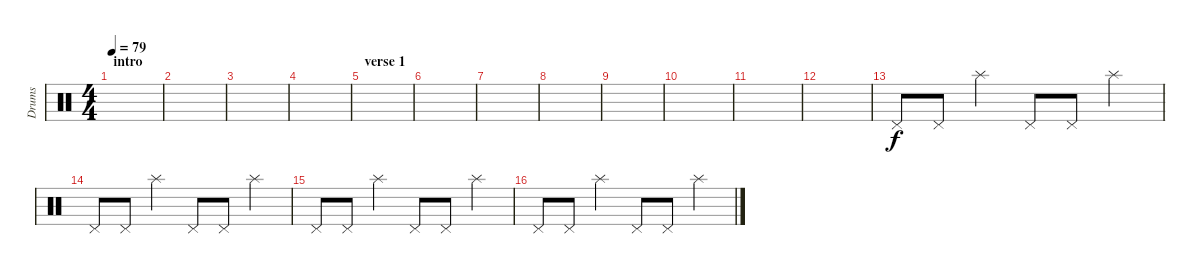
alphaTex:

\track ("Drums" "Drums") {instrument percussion}
\staff {score}
\articulation defaults
\ts (4 4)
\section ("" "intro")
\tempo 79
\clef neutral
\ks c
|
|
|
|
\section ("" "verse 1")
|
|
|
|
|
|
|
|
"Pedal Hi-Hat (hit)".8{volume 8} "Pedal Hi-Hat (hit)".8 "Splash (hit)".4 "Pedal Hi-Hat (hit)".8 "Pedal Hi-Hat (hit)".8 "Splash (hit)".4 |
"Pedal Hi-Hat (hit)".8 "Pedal Hi-Hat (hit)".8 "Splash (hit)".4 "Pedal Hi-Hat (hit)".8 "Pedal Hi-Hat (hit)".8 "Splash (hit)".4 |
"Pedal Hi-Hat (hit)".8 "Pedal Hi-Hat (hit)".8 "Splash (hit)".4 "Pedal Hi-Hat (hit)".8 "Pedal Hi-Hat (hit)".8 "Splash (hit)".4 |
"Pedal Hi-Hat (hit)".8 "Pedal Hi-Hat (hit)".8 "Splash (hit)".4 "Pedal Hi-Hat (hit)".8 "Pedal Hi-Hat (hit)".8 "Splash (hit)".4
